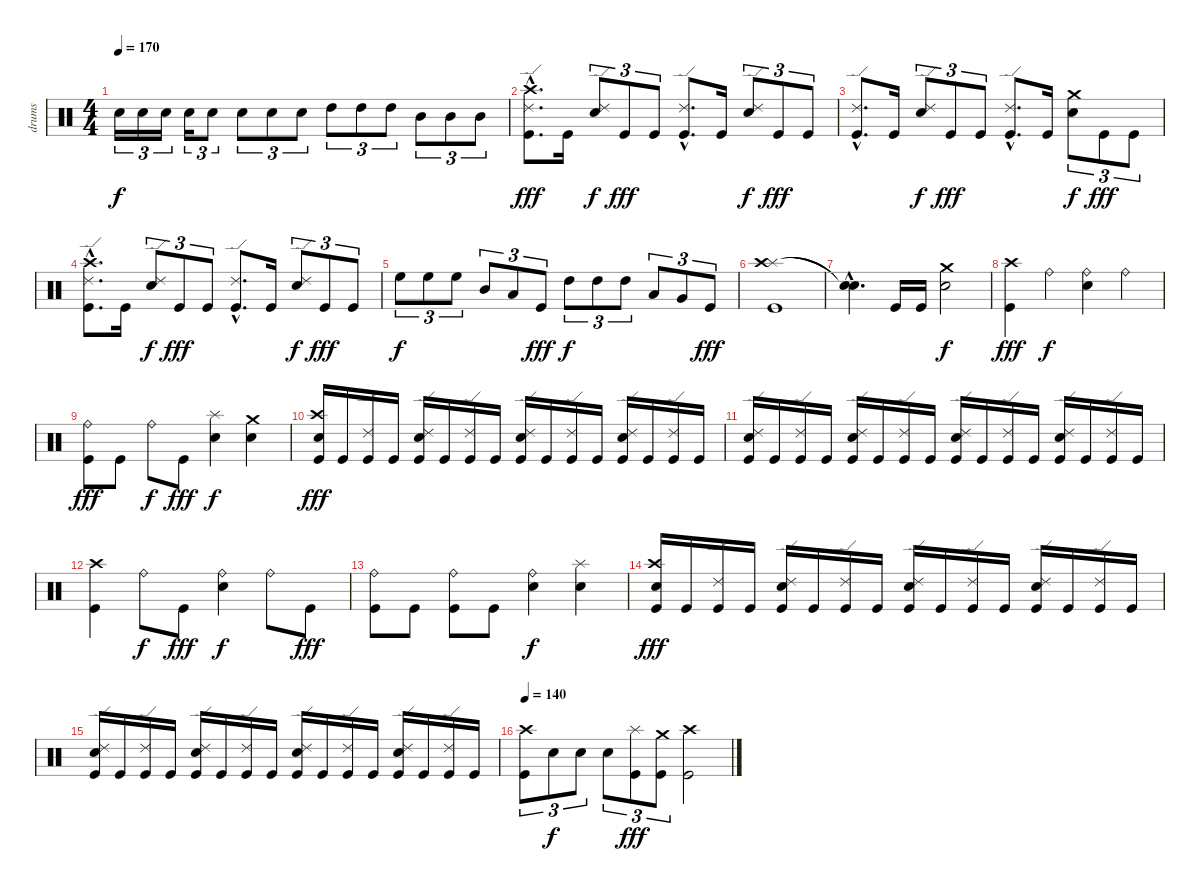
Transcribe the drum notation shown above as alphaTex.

\track ("drums" "drums") {instrument percussion}
\staff {score}
\articulation defaults
\ts (4 4)
\tempo 170
\clef neutral
\ks c "Snare (hit) 2".16{tu (3 2) dy f} "Snare (hit) 2".16{tu (3 2)} "Snare (hit) 2".16{tu (3 2)} "Snare (hit) 2".16{tu (3 2)} "Snare (hit) 2".8{tu (3 2)} "Snare (hit) 2".8{tu (3 2)} "Snare (hit) 2".8{tu (3 2)} "Snare (hit) 2".8{tu (3 2)} "High Tom (hit)".8{tu (3 2)} "High Tom (hit)".8{tu (3 2)} "High Tom (hit)".8{tu (3 2)} "Mid Tom (hit)".8{tu (3 2)} "Mid Tom (hit)".8{tu (3 2)} "Mid Tom (hit)".8{tu (3 2)}
|
("Crash high (hit)"{hac} "Ride (edge) 2"{hac} "Kick (hit)"{hac}).8{d dy fff} "Kick (hit)".16 ("Ride (edge) 2" "Snare (hit) 2").8{tu (3 2) dy f} "Kick (hit)".8{tu (3 2) dy fff} "Kick (hit)".8{tu (3 2)} ("Ride (edge) 2"{hac} "Kick (hit)"{hac}).8{d} "Kick (hit)".16 ("Ride (edge) 2" "Snare (hit) 2").8{tu (3 2) dy f} "Kick (hit)".8{tu (3 2) dy fff} "Kick (hit)".8{tu (3 2)} |
("Ride (edge) 2"{hac} "Kick (hit)"{hac}).8{d} "Kick (hit)".16 ("Ride (edge) 2" "Snare (hit) 2").8{tu (3 2) dy f} "Kick (hit)".8{tu (3 2) dy fff} "Kick (hit)".8{tu (3 2)} ("Ride (edge) 2"{hac} "Kick (hit)"{hac}).8{d} "Kick (hit)".16 ("Crash medium (hit)" "Snare (hit) 2").8{tu (3 2) dy f} "Kick (hit)".8{tu (3 2) dy fff} "Kick (hit)".8{tu (3 2)} |
("Crash high (hit)"{hac} "Ride (edge) 2"{hac} "Kick (hit)"{hac}).8{d} "Kick (hit)".16 ("Ride (edge) 2" "Snare (hit) 2").8{tu (3 2) dy f} "Kick (hit)".8{tu (3 2) dy fff} "Kick (hit)".8{tu (3 2)} ("Ride (edge) 2"{hac} "Kick (hit)"{hac}).8{d} "Kick (hit)".16 ("Ride (edge) 2" "Snare (hit) 2").8{tu (3 2) dy f} "Kick (hit)".8{tu (3 2) dy fff} "Kick (hit)".8{tu (3 2)} |
"High Floor Tom (hit)".8{tu (3 2) dy f} "High Floor Tom (hit)".8{tu (3 2)} "High Floor Tom (hit)".8{tu (3 2)} "Mid Tom (hit)".8{tu (3 2)} "Low Tom (hit)".8{tu (3 2)} "Kick (hit)".8{tu (3 2) dy fff} "High Tom (hit)".8{tu (3 2) dy f} "High Tom (hit)".8{tu (3 2)} "High Tom (hit)".8{tu (3 2)} "Low Tom (hit)".8{tu (3 2)} "Very Low Tom (hit)".8{tu (3 2)} "Kick (hit)".8{tu (3 2) dy fff} |
("Splash (hit)" "Crash high (hit)" "Kick (hit)").1 |
("Snare (hit)"{hac t} "Snare (hit)"{hac t}).4{d} "Kick (hit)".16 "Kick (hit)".16 ("Crash medium (hit)" "Snare (hit) 2").2{dy f} |
("Crash high (hit)" "Kick (hit)").4{dy fff} "Ride (bell)".4{dy f} ("Ride (bell)" "Snare (hit) 2").4 "Ride (bell)".4 |
("Ride (bell)" "Kick (hit)").8{dy fff} "Kick (hit)".8 "Ride (bell)".8{dy f} "Kick (hit)".8{dy fff} ("Splash (hit)" "Snare (hit) 2").4{dy f} ("Crash medium (hit)" "Snare (hit) 2").4 |
("Crash high (hit)" "Snare (hit) 2" "Kick (hit)").16{dy fff} "Kick (hit)".16 ("Ride (edge) 2" "Kick (hit)").16 "Kick (hit)".16 ("Ride (edge) 2" "Snare (hit) 2" "Kick (hit)").16 "Kick (hit)".16 ("Ride (edge) 2" "Kick (hit)").16 "Kick (hit)".16 ("Ride (edge) 2" "Snare (hit) 2" "Kick (hit)").16 "Kick (hit)".16 ("Ride (edge) 2" "Kick (hit)").16 "Kick (hit)".16 ("Ride (edge) 2" "Snare (hit) 2" "Kick (hit)").16 "Kick (hit)".16 ("Ride (edge) 2" "Kick (hit)").16 "Kick (hit)".16 |
("Ride (edge) 2" "Snare (hit) 2" "Kick (hit)").16 "Kick (hit)".16 ("Ride (edge) 2" "Kick (hit)").16 "Kick (hit)".16 ("Ride (edge) 2" "Snare (hit) 2" "Kick (hit)").16 "Kick (hit)".16 ("Ride (edge) 2" "Kick (hit)").16 "Kick (hit)".16 ("Ride (edge) 2" "Snare (hit) 2" "Kick (hit)").16 "Kick (hit)".16 ("Ride (edge) 2" "Kick (hit)").16 "Kick (hit)".16 ("Ride (edge) 2" "Snare (hit) 2" "Kick (hit)").16 "Kick (hit)".16 ("Ride (edge) 2" "Kick (hit)").16 "Kick (hit)".16 |
("Crash high (hit)" "Kick (hit)").4 "Ride (bell)".8{dy f} "Kick (hit)".8{dy fff} ("Ride (bell)" "Snare (hit) 2").4{dy f} "Ride (bell)".8 "Kick (hit)".8{dy fff} |
("Ride (bell)" "Kick (hit)").8 "Kick (hit)".8 ("Ride (bell)" "Kick (hit)").8 "Kick (hit)".8 ("Ride (bell)" "Snare (hit) 2").4{dy f} ("Splash (hit)" "Snare (hit) 2").4 |
("Crash high (hit)" "Snare (hit) 2" "Kick (hit)").16{dy fff} "Kick (hit)".16 ("Ride (edge) 2" "Kick (hit)").16 "Kick (hit)".16 ("Ride (edge) 2" "Snare (hit) 2" "Kick (hit)").16 "Kick (hit)".16 ("Ride (edge) 2" "Kick (hit)").16 "Kick (hit)".16 ("Ride (edge) 2" "Snare (hit) 2" "Kick (hit)").16 "Kick (hit)".16 ("Ride (edge) 2" "Kick (hit)").16 "Kick (hit)".16 ("Ride (edge) 2" "Snare (hit) 2" "Kick (hit)").16 "Kick (hit)".16 ("Ride (edge) 2" "Kick (hit)").16 "Kick (hit)".16 |
("Ride (edge) 2" "Snare (hit) 2" "Kick (hit)").16 "Kick (hit)".16 ("Ride (edge) 2" "Kick (hit)").16 "Kick (hit)".16 ("Ride (edge) 2" "Snare (hit) 2" "Kick (hit)").16 "Kick (hit)".16 ("Ride (edge) 2" "Kick (hit)").16 "Kick (hit)".16 ("Ride (edge) 2" "Snare (hit) 2" "Kick (hit)").16 "Kick (hit)".16 ("Ride (edge) 2" "Kick (hit)").16 "Kick (hit)".16 ("Ride (edge) 2" "Snare (hit) 2" "Kick (hit)").16 "Kick (hit)".16 ("Ride (edge) 2" "Kick (hit)").16 "Kick (hit)".16 |
\tempo 140
("Crash high (hit)" "Kick (hit)").8{tu (3 2)} "Snare (hit) 2".8{tu (3 2) dy f} "Snare (hit) 2".8{tu (3 2)} "Snare (hit) 2".8{tu (3 2)} ("Splash (hit)" "Kick (hit)").8{tu (3 2) dy fff} ("Crash medium (hit)" "Kick (hit)").8{tu (3 2)} ("Crash high (hit)" "Kick (hit)").2
